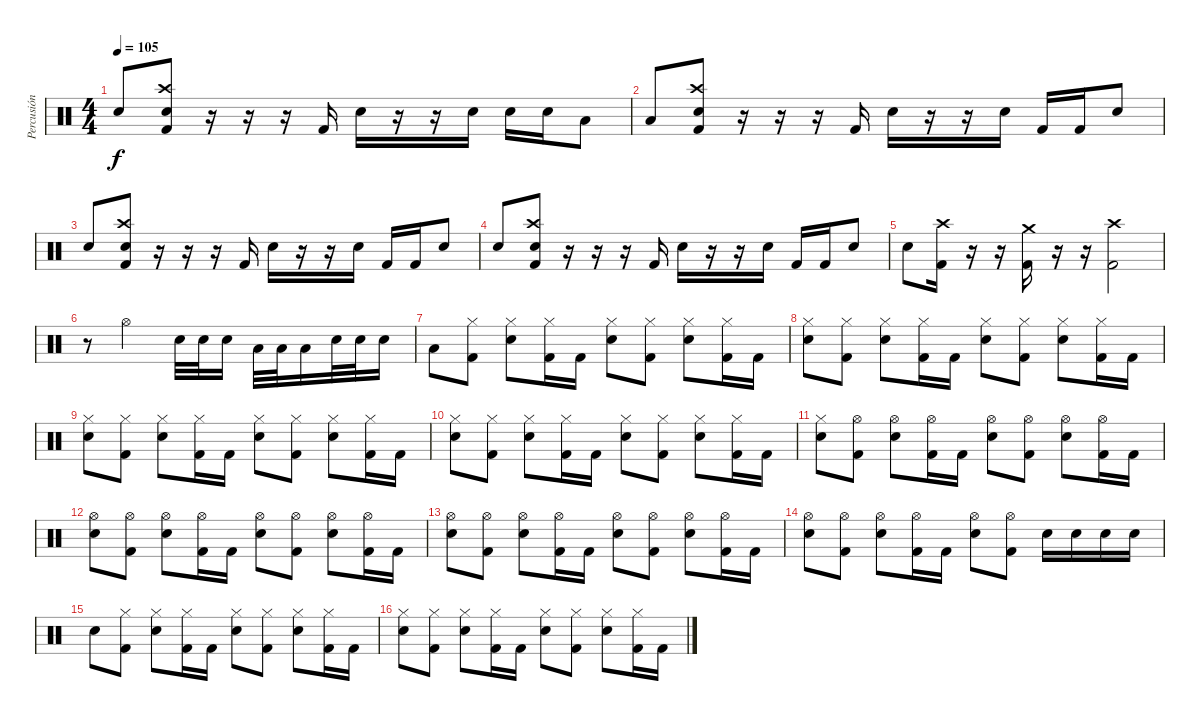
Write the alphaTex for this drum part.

\track ("Percusión" "Percusión") {instrument percussion}
\staff {score}
\articulation defaults
\ts (4 4)
\tempo 105
\clef neutral
\ks c "Electric Snare (hit)".8{dy f}
("Crash high (hit)" "Electric Snare (hit)" "Kick (hit) 2").8 r.16 r.16 r.16 "Kick (hit) 2".16 "Electric Snare (hit)".16 r.16 r.16 "Electric Snare (hit)".16 "Electric Snare (hit)".16 "Electric Snare (hit)".16 "Low Tom (hit)".8 |
"Low Tom (hit)".8 ("Crash high (hit)" "Electric Snare (hit)" "Kick (hit) 2").8 r.16 r.16 r.16 "Kick (hit) 2".16 "Electric Snare (hit)".16 r.16 r.16 "Electric Snare (hit)".16 "Kick (hit) 2".16 "Kick (hit) 2".16 "Electric Snare (hit)".8 |
"Electric Snare (hit)".8 ("Crash high (hit)" "Electric Snare (hit)" "Kick (hit) 2").8 r.16 r.16 r.16 "Kick (hit) 2".16 "Electric Snare (hit)".16 r.16 r.16 "Electric Snare (hit)".16 "Kick (hit) 2".16 "Kick (hit) 2".16 "Electric Snare (hit)".8 |
"Electric Snare (hit)".8 ("Crash high (hit)" "Electric Snare (hit)" "Kick (hit) 2").8 r.16 r.16 r.16 "Kick (hit) 2".16 "Electric Snare (hit)".16 r.16 r.16 "Electric Snare (hit)".16 "Kick (hit) 2".16 "Kick (hit) 2".16 "Electric Snare (hit)".8 |
"Electric Snare (hit)".8 ("Crash high (hit)" "Kick (hit) 2").16 r.16 r.16 ("Crash medium (hit)" "Kick (hit) 2").16 r.16 r.16 ("Crash high (hit)" "Kick (hit) 2").2 |
r.8 "Hi-Hat (open)".2 "Electric Snare (hit)".32 "Electric Snare (hit)".32 "Electric Snare (hit)".16 "Low Tom (hit)".32 "Low Tom (hit)".32 "Low Tom (hit)".16 "Electric Snare (hit)".32 "Electric Snare (hit)".32 "Electric Snare (hit)".16 |
"Low Tom (hit)".8 ("Hi-Hat (closed)" "Kick (hit) 2").8 ("Hi-Hat (closed)" "Electric Snare (hit)").8 ("Hi-Hat (closed)" "Kick (hit) 2").16 "Kick (hit) 2".16 ("Hi-Hat (closed)" "Electric Snare (hit)").8 ("Hi-Hat (closed)" "Kick (hit) 2").8 ("Hi-Hat (closed)" "Electric Snare (hit)").8 ("Hi-Hat (closed)" "Kick (hit) 2").16 "Kick (hit) 2".16 |
("Hi-Hat (closed)" "Electric Snare (hit)").8 ("Hi-Hat (closed)" "Kick (hit) 2").8 ("Hi-Hat (closed)" "Electric Snare (hit)").8 ("Hi-Hat (closed)" "Kick (hit) 2").16 "Kick (hit) 2".16 ("Hi-Hat (closed)" "Electric Snare (hit)").8 ("Hi-Hat (closed)" "Kick (hit) 2").8 ("Hi-Hat (closed)" "Electric Snare (hit)").8 ("Hi-Hat (closed)" "Kick (hit) 2").16 "Kick (hit) 2".16 |
("Hi-Hat (closed)" "Electric Snare (hit)").8 ("Hi-Hat (closed)" "Kick (hit) 2").8 ("Hi-Hat (closed)" "Electric Snare (hit)").8 ("Hi-Hat (closed)" "Kick (hit) 2").16 "Kick (hit) 2".16 ("Hi-Hat (closed)" "Electric Snare (hit)").8 ("Hi-Hat (closed)" "Kick (hit) 2").8 ("Hi-Hat (closed)" "Electric Snare (hit)").8 ("Hi-Hat (closed)" "Kick (hit) 2").16 "Kick (hit) 2".16 |
("Hi-Hat (closed)" "Electric Snare (hit)").8 ("Hi-Hat (closed)" "Kick (hit) 2").8 ("Hi-Hat (closed)" "Electric Snare (hit)").8 ("Hi-Hat (closed)" "Kick (hit) 2").16 "Kick (hit) 2".16 ("Hi-Hat (closed)" "Electric Snare (hit)").8 ("Hi-Hat (closed)" "Kick (hit) 2").8 ("Hi-Hat (closed)" "Electric Snare (hit)").8 ("Hi-Hat (closed)" "Kick (hit) 2").16 "Kick (hit) 2".16 |
("Hi-Hat (closed)" "Electric Snare (hit)").8 ("Hi-Hat (open)" "Kick (hit) 2").8 ("Hi-Hat (open)" "Electric Snare (hit)").8 ("Hi-Hat (open)" "Kick (hit) 2").16 "Kick (hit) 2".16 ("Hi-Hat (open)" "Electric Snare (hit)").8 ("Hi-Hat (open)" "Kick (hit) 2").8 ("Hi-Hat (open)" "Electric Snare (hit)").8 ("Hi-Hat (open)" "Kick (hit) 2").16 "Kick (hit) 2".16 |
("Hi-Hat (open)" "Electric Snare (hit)").8 ("Hi-Hat (open)" "Kick (hit) 2").8 ("Hi-Hat (open)" "Electric Snare (hit)").8 ("Hi-Hat (open)" "Kick (hit) 2").16 "Kick (hit) 2".16 ("Hi-Hat (open)" "Electric Snare (hit)").8 ("Hi-Hat (open)" "Kick (hit) 2").8 ("Hi-Hat (open)" "Electric Snare (hit)").8 ("Hi-Hat (open)" "Kick (hit) 2").16 "Kick (hit) 2".16 |
("Hi-Hat (open)" "Electric Snare (hit)").8 ("Hi-Hat (open)" "Kick (hit) 2").8 ("Hi-Hat (open)" "Electric Snare (hit)").8 ("Hi-Hat (open)" "Kick (hit) 2").16 "Kick (hit) 2".16 ("Hi-Hat (open)" "Electric Snare (hit)").8 ("Hi-Hat (open)" "Kick (hit) 2").8 ("Hi-Hat (open)" "Electric Snare (hit)").8 ("Hi-Hat (open)" "Kick (hit) 2").16 "Kick (hit) 2".16 |
("Hi-Hat (open)" "Electric Snare (hit)").8 ("Hi-Hat (open)" "Kick (hit) 2").8 ("Hi-Hat (open)" "Electric Snare (hit)").8 ("Hi-Hat (open)" "Kick (hit) 2").16 "Kick (hit) 2".16 ("Hi-Hat (open)" "Electric Snare (hit)").8 ("Hi-Hat (open)" "Kick (hit) 2").8 "Electric Snare (hit)".16 "Electric Snare (hit)".16 "Electric Snare (hit)".16 "Electric Snare (hit)".16 |
"Electric Snare (hit)".8 ("Hi-Hat (closed)" "Kick (hit) 2").8 ("Hi-Hat (closed)" "Electric Snare (hit)").8 ("Hi-Hat (closed)" "Kick (hit) 2").16 "Kick (hit) 2".16 ("Hi-Hat (closed)" "Electric Snare (hit)").8 ("Hi-Hat (closed)" "Kick (hit) 2").8 ("Hi-Hat (closed)" "Electric Snare (hit)").8 ("Hi-Hat (closed)" "Kick (hit) 2").16 "Kick (hit) 2".16 |
("Hi-Hat (closed)" "Electric Snare (hit)").8 ("Hi-Hat (closed)" "Kick (hit) 2").8 ("Hi-Hat (closed)" "Electric Snare (hit)").8 ("Hi-Hat (closed)" "Kick (hit) 2").16 "Kick (hit) 2".16 ("Hi-Hat (closed)" "Electric Snare (hit)").8 ("Hi-Hat (closed)" "Kick (hit) 2").8 ("Hi-Hat (closed)" "Electric Snare (hit)").8 ("Hi-Hat (closed)" "Kick (hit) 2").16 "Kick (hit) 2".16
